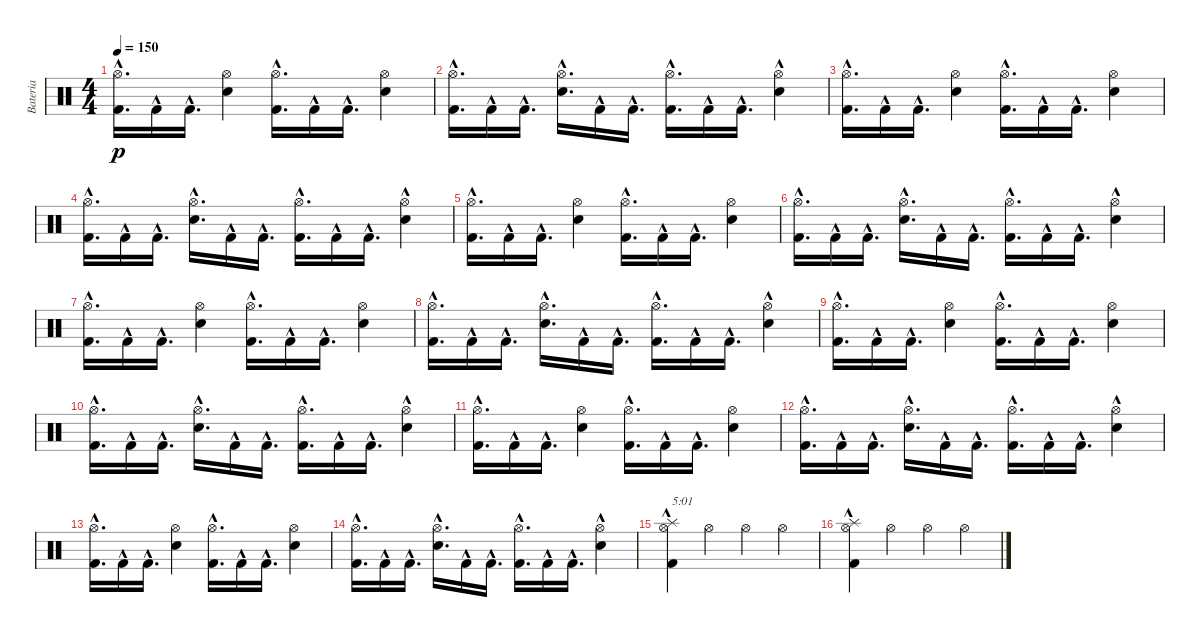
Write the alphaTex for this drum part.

\track ("Bateria" "Bateria") {instrument percussion}
\staff {score}
\articulation defaults
\ts (4 4)
\tempo 150
\clef neutral
\ks c
("Hi-Hat (open)" "Kick (hit) 2"{hac}).16{d dy p} "Kick (hit) 2"{hac}.16 "Kick (hit) 2"{hac}.16{d} ("Hi-Hat (open)" "Snare (hit) 2").4 ("Hi-Hat (open)" "Kick (hit) 2"{hac}).16{d} "Kick (hit) 2"{hac}.16 "Kick (hit) 2"{hac}.16{d} ("Hi-Hat (open)" "Snare (hit) 2").4 |
("Hi-Hat (open)" "Kick (hit) 2"{hac}).16{d} "Kick (hit) 2"{hac}.16 "Kick (hit) 2"{hac}.16{d} ("Hi-Hat (open)" "Snare (hit) 2"{hac}).16{d} "Kick (hit) 2"{hac}.16 "Kick (hit) 2"{hac}.16{d} ("Hi-Hat (open)" "Kick (hit) 2"{hac}).16{d} "Kick (hit) 2"{hac}.16 "Kick (hit) 2"{hac}.16{d} ("Hi-Hat (open)" "Electric Snare (hit)"{hac}).4 |
("Hi-Hat (open)" "Kick (hit) 2"{hac}).16{d} "Kick (hit) 2"{hac}.16 "Kick (hit) 2"{hac}.16{d} ("Hi-Hat (open)" "Snare (hit) 2").4 ("Hi-Hat (open)" "Kick (hit) 2"{hac}).16{d} "Kick (hit) 2"{hac}.16 "Kick (hit) 2"{hac}.16{d} ("Hi-Hat (open)" "Snare (hit) 2").4 |
("Hi-Hat (open)" "Kick (hit) 2"{hac}).16{d} "Kick (hit) 2"{hac}.16 "Kick (hit) 2"{hac}.16{d} ("Hi-Hat (open)" "Snare (hit) 2"{hac}).16{d} "Kick (hit) 2"{hac}.16 "Kick (hit) 2"{hac}.16{d} ("Hi-Hat (open)" "Kick (hit) 2"{hac}).16{d} "Kick (hit) 2"{hac}.16 "Kick (hit) 2"{hac}.16{d} ("Hi-Hat (open)" "Electric Snare (hit)"{hac}).4 |
("Kick (hit) 2"{hac} "Hi-Hat (open)").16{d} "Kick (hit) 2"{hac}.16 "Kick (hit) 2"{hac}.16{d} ("Snare (hit) 2" "Hi-Hat (open)").4 ("Kick (hit) 2"{hac} "Hi-Hat (open)").16{d} "Kick (hit) 2"{hac}.16 "Kick (hit) 2"{hac}.16{d} ("Snare (hit) 2" "Hi-Hat (open)").4 |
("Kick (hit) 2"{hac} "Hi-Hat (open)").16{d} "Kick (hit) 2"{hac}.16 "Kick (hit) 2"{hac}.16{d} ("Snare (hit) 2"{hac} "Hi-Hat (open)").16{d} "Kick (hit) 2"{hac}.16 "Kick (hit) 2"{hac}.16{d} ("Kick (hit) 2"{hac} "Hi-Hat (open)").16{d} "Kick (hit) 2"{hac}.16 "Kick (hit) 2"{hac}.16{d} ("Electric Snare (hit)"{hac} "Hi-Hat (open)").4 |
("Hi-Hat (open)" "Kick (hit) 2"{hac}).16{d} "Kick (hit) 2"{hac}.16 "Kick (hit) 2"{hac}.16{d} ("Hi-Hat (open)" "Snare (hit) 2").4 ("Hi-Hat (open)" "Kick (hit) 2"{hac}).16{d} "Kick (hit) 2"{hac}.16 "Kick (hit) 2"{hac}.16{d} ("Hi-Hat (open)" "Snare (hit) 2").4 |
("Hi-Hat (open)" "Kick (hit) 2"{hac}).16{d} "Kick (hit) 2"{hac}.16 "Kick (hit) 2"{hac}.16{d} ("Hi-Hat (open)" "Snare (hit) 2"{hac}).16{d} "Kick (hit) 2"{hac}.16 "Kick (hit) 2"{hac}.16{d} ("Hi-Hat (open)" "Kick (hit) 2"{hac}).16{d} "Kick (hit) 2"{hac}.16 "Kick (hit) 2"{hac}.16{d} ("Hi-Hat (open)" "Electric Snare (hit)"{hac}).4 |
("Hi-Hat (open)" "Kick (hit) 2"{hac}).16{d} "Kick (hit) 2"{hac}.16 "Kick (hit) 2"{hac}.16{d} ("Hi-Hat (open)" "Snare (hit) 2").4 ("Hi-Hat (open)" "Kick (hit) 2"{hac}).16{d} "Kick (hit) 2"{hac}.16 "Kick (hit) 2"{hac}.16{d} ("Hi-Hat (open)" "Snare (hit) 2").4 |
("Hi-Hat (open)" "Kick (hit) 2"{hac}).16{d} "Kick (hit) 2"{hac}.16 "Kick (hit) 2"{hac}.16{d} ("Hi-Hat (open)" "Snare (hit) 2"{hac}).16{d} "Kick (hit) 2"{hac}.16 "Kick (hit) 2"{hac}.16{d} ("Hi-Hat (open)" "Kick (hit) 2"{hac}).16{d} "Kick (hit) 2"{hac}.16 "Kick (hit) 2"{hac}.16{d} ("Hi-Hat (open)" "Electric Snare (hit)"{hac}).4 |
("Kick (hit) 2"{hac} "Hi-Hat (open)").16{d} "Kick (hit) 2"{hac}.16 "Kick (hit) 2"{hac}.16{d} ("Snare (hit) 2" "Hi-Hat (open)").4 ("Kick (hit) 2"{hac} "Hi-Hat (open)").16{d} "Kick (hit) 2"{hac}.16 "Kick (hit) 2"{hac}.16{d} ("Snare (hit) 2" "Hi-Hat (open)").4 |
("Kick (hit) 2"{hac} "Hi-Hat (open)").16{d} "Kick (hit) 2"{hac}.16 "Kick (hit) 2"{hac}.16{d} ("Snare (hit) 2"{hac} "Hi-Hat (open)").16{d} "Kick (hit) 2"{hac}.16 "Kick (hit) 2"{hac}.16{d} ("Kick (hit) 2"{hac} "Hi-Hat (open)").16{d} "Kick (hit) 2"{hac}.16 "Kick (hit) 2"{hac}.16{d} ("Electric Snare (hit)"{hac} "Hi-Hat (open)").4 |
("Hi-Hat (open)" "Kick (hit) 2"{hac}).16{d} "Kick (hit) 2"{hac}.16 "Kick (hit) 2"{hac}.16{d} ("Hi-Hat (open)" "Snare (hit) 2").4 ("Hi-Hat (open)" "Kick (hit) 2"{hac}).16{d} "Kick (hit) 2"{hac}.16 "Kick (hit) 2"{hac}.16{d} ("Hi-Hat (open)" "Snare (hit) 2").4 |
("Hi-Hat (open)" "Kick (hit) 2"{hac}).16{d} "Kick (hit) 2"{hac}.16 "Kick (hit) 2"{hac}.16{d} ("Hi-Hat (open)" "Snare (hit) 2"{hac}).16{d} "Kick (hit) 2"{hac}.16 "Kick (hit) 2"{hac}.16{d} ("Hi-Hat (open)" "Kick (hit) 2"{hac}).16{d} "Kick (hit) 2"{hac}.16 "Kick (hit) 2"{hac}.16{d} ("Hi-Hat (open)" "Electric Snare (hit)"{hac}).4 |
("Splash (hit)"{hac} "Kick (hit) 2"{hac} "Hi-Hat (open)").4{txt "5:01"} "Hi-Hat (open)".4 "Hi-Hat (open)".4 "Hi-Hat (open)".4 |
("Splash (hit)"{hac} "Kick (hit) 2"{hac} "Hi-Hat (open)").4 "Hi-Hat (open)".4 "Hi-Hat (open)".4 "Hi-Hat (open)".4
